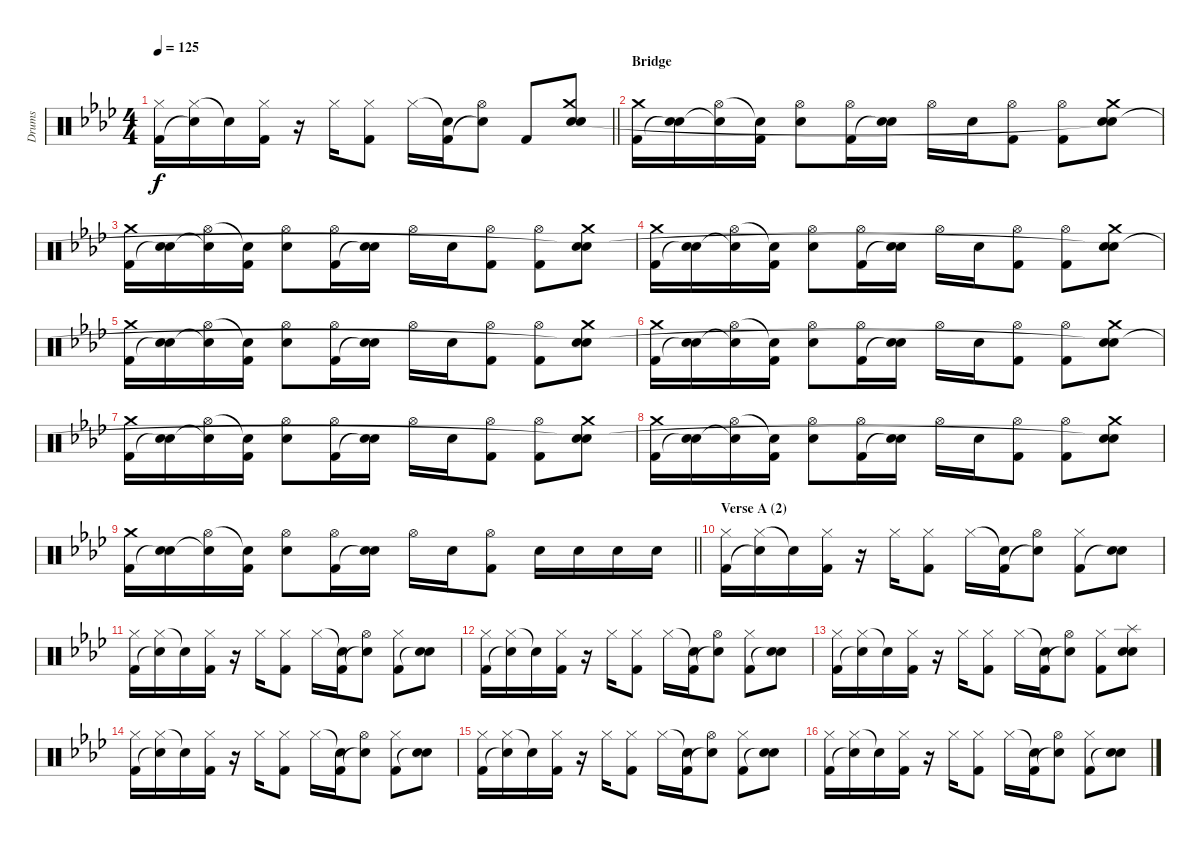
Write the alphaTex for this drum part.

\track ("Drums" "Drums") {instrument percussion}
\staff {score}
\articulation defaults
\ts (4 4)
\tempo 125
\clef neutral
\barLineRight lightlight
\ks ab
("Hi-Hat (closed)" "Kick (hit) 2").16{dy f} ("Hi-Hat (closed)" "Snare (hit)"{t}).16 "Snare (hit)"{t}.16 ("Hi-Hat (closed)" "Kick (hit) 2").16 r.16 "Hi-Hat (closed)".16 ("Hi-Hat (closed)" "Kick (hit) 2").8 "Hi-Hat (closed)".16 ("Snare (hit)"{t} "Kick (hit) 2").16 ("Hi-Hat (open)" "Snare (hit)"{t}).8 "Kick (hit) 2".8 ("Crash medium (hit)" "Electric Snare (hit)" "Snare (hit)").8 |
\section ("" "Bridge")
("Crash medium (hit)" "Kick (hit) 2").16 ("Electric Snare (hit)" "Snare (hit)"{t}).16 ("Hi-Hat (open)" "Snare (hit)"{t}).16 ("Snare (hit)"{t} "Kick (hit) 2").16 ("Hi-Hat (open)" "Electric Snare (hit)").8 ("Hi-Hat (open)" "Kick (hit) 2").16 ("Electric Snare (hit)" "Snare (hit)"{t}).16 "Hi-Hat (open)".16 "Electric Snare (hit)".16 ("Hi-Hat (open)" "Kick (hit) 2").8 ("Hi-Hat (open)" "Kick (hit) 2").8 ("Crash medium (hit)" "Electric Snare (hit)" "Snare (hit)"{t}).8 |
("Crash medium (hit)" "Kick (hit) 2").16 ("Electric Snare (hit)" "Snare (hit)"{t}).16 ("Hi-Hat (open)" "Snare (hit)"{t}).16 ("Snare (hit)"{t} "Kick (hit) 2").16 ("Hi-Hat (open)" "Electric Snare (hit)").8 ("Hi-Hat (open)" "Kick (hit) 2").16 ("Electric Snare (hit)" "Snare (hit)"{t}).16 "Hi-Hat (open)".16 "Electric Snare (hit)".16 ("Hi-Hat (open)" "Kick (hit) 2").8 ("Hi-Hat (open)" "Kick (hit) 2").8 ("Crash medium (hit)" "Electric Snare (hit)" "Snare (hit)"{t}).8 |
("Crash medium (hit)" "Kick (hit) 2").16 ("Electric Snare (hit)" "Snare (hit)"{t}).16 ("Hi-Hat (open)" "Snare (hit)"{t}).16 ("Snare (hit)"{t} "Kick (hit) 2").16 ("Hi-Hat (open)" "Electric Snare (hit)").8 ("Hi-Hat (open)" "Kick (hit) 2").16 ("Electric Snare (hit)" "Snare (hit)"{t}).16 "Hi-Hat (open)".16 "Electric Snare (hit)".16 ("Hi-Hat (open)" "Kick (hit) 2").8 ("Hi-Hat (open)" "Kick (hit) 2").8 ("Crash medium (hit)" "Electric Snare (hit)" "Snare (hit)"{t}).8 |
("Crash medium (hit)" "Kick (hit) 2").16 ("Electric Snare (hit)" "Snare (hit)"{t}).16 ("Hi-Hat (open)" "Snare (hit)"{t}).16 ("Snare (hit)"{t} "Kick (hit) 2").16 ("Hi-Hat (open)" "Electric Snare (hit)").8 ("Hi-Hat (open)" "Kick (hit) 2").16 ("Electric Snare (hit)" "Snare (hit)"{t}).16 "Hi-Hat (open)".16 "Electric Snare (hit)".16 ("Hi-Hat (open)" "Kick (hit) 2").8 ("Hi-Hat (open)" "Kick (hit) 2").8 ("Crash medium (hit)" "Electric Snare (hit)" "Snare (hit)"{t}).8 |
("Crash medium (hit)" "Kick (hit) 2").16 ("Electric Snare (hit)" "Snare (hit)"{t}).16 ("Hi-Hat (open)" "Snare (hit)"{t}).16 ("Snare (hit)"{t} "Kick (hit) 2").16 ("Hi-Hat (open)" "Electric Snare (hit)").8 ("Hi-Hat (open)" "Kick (hit) 2").16 ("Electric Snare (hit)" "Snare (hit)"{t}).16 "Hi-Hat (open)".16 "Electric Snare (hit)".16 ("Hi-Hat (open)" "Kick (hit) 2").8 ("Hi-Hat (open)" "Kick (hit) 2").8 ("Crash medium (hit)" "Electric Snare (hit)" "Snare (hit)"{t}).8 |
("Crash medium (hit)" "Kick (hit) 2").16 ("Electric Snare (hit)" "Snare (hit)"{t}).16 ("Hi-Hat (open)" "Snare (hit)"{t}).16 ("Snare (hit)"{t} "Kick (hit) 2").16 ("Hi-Hat (open)" "Electric Snare (hit)").8 ("Hi-Hat (open)" "Kick (hit) 2").16 ("Electric Snare (hit)" "Snare (hit)"{t}).16 "Hi-Hat (open)".16 "Electric Snare (hit)".16 ("Hi-Hat (open)" "Kick (hit) 2").8 ("Hi-Hat (open)" "Kick (hit) 2").8 ("Crash medium (hit)" "Electric Snare (hit)" "Snare (hit)"{t}).8 |
("Crash medium (hit)" "Kick (hit) 2").16 ("Electric Snare (hit)" "Snare (hit)"{t}).16 ("Hi-Hat (open)" "Snare (hit)"{t}).16 ("Snare (hit)"{t} "Kick (hit) 2").16 ("Hi-Hat (open)" "Electric Snare (hit)").8 ("Hi-Hat (open)" "Kick (hit) 2").16 ("Electric Snare (hit)" "Snare (hit)"{t}).16 "Hi-Hat (open)".16 "Electric Snare (hit)".16 ("Hi-Hat (open)" "Kick (hit) 2").8 ("Hi-Hat (open)" "Kick (hit) 2").8 ("Crash medium (hit)" "Electric Snare (hit)" "Snare (hit)"{t}).8 |
\barLineRight lightlight
("Crash medium (hit)" "Kick (hit) 2").16 ("Electric Snare (hit)" "Snare (hit)"{t}).16 ("Hi-Hat (open)" "Snare (hit)"{t}).16 ("Snare (hit)"{t} "Kick (hit) 2").16 ("Hi-Hat (open)" "Electric Snare (hit)").8 ("Hi-Hat (open)" "Kick (hit) 2").16 ("Electric Snare (hit)" "Snare (hit)"{t}).16 "Hi-Hat (open)".16 "Electric Snare (hit)".16 ("Hi-Hat (open)" "Kick (hit) 2").8 "Electric Snare (hit)".16 "Electric Snare (hit)".16 "Electric Snare (hit)".16 "Electric Snare (hit)".16 |
\section ("" "Verse A (2)")
("Hi-Hat (closed)" "Kick (hit) 2").16 ("Hi-Hat (closed)" "Snare (hit)"{t}).16 "Snare (hit)"{t}.16 ("Hi-Hat (closed)" "Kick (hit) 2").16 r.16 "Hi-Hat (closed)".16 ("Hi-Hat (closed)" "Kick (hit) 2").8 "Hi-Hat (closed)".16 ("Snare (hit)"{t} "Kick (hit) 2").16 ("Hi-Hat (open)" "Snare (hit)"{t}).8 ("Hi-Hat (closed)" "Kick (hit) 2").8 ("Electric Snare (hit)" "Snare (hit)"{t}).8 |
("Hi-Hat (closed)" "Kick (hit) 2").16 ("Hi-Hat (closed)" "Snare (hit)"{t}).16 "Snare (hit)"{t}.16 ("Hi-Hat (closed)" "Kick (hit) 2").16 r.16 "Hi-Hat (closed)".16 ("Hi-Hat (closed)" "Kick (hit) 2").8 "Hi-Hat (closed)".16 ("Snare (hit)"{t} "Kick (hit) 2").16 ("Hi-Hat (open)" "Snare (hit)"{t}).8 ("Hi-Hat (closed)" "Kick (hit) 2").8 ("Electric Snare (hit)" "Snare (hit)"{t}).8 |
("Hi-Hat (closed)" "Kick (hit) 2").16 ("Hi-Hat (closed)" "Snare (hit)"{t}).16 "Snare (hit)"{t}.16 ("Hi-Hat (closed)" "Kick (hit) 2").16 r.16 "Hi-Hat (closed)".16 ("Hi-Hat (closed)" "Kick (hit) 2").8 "Hi-Hat (closed)".16 ("Snare (hit)"{t} "Kick (hit) 2").16 ("Hi-Hat (open)" "Snare (hit)"{t}).8 ("Hi-Hat (closed)" "Kick (hit) 2").8 ("Electric Snare (hit)" "Snare (hit)"{t}).8 |
("Hi-Hat (closed)" "Kick (hit) 2").16 ("Hi-Hat (closed)" "Snare (hit)"{t}).16 "Snare (hit)"{t}.16 ("Hi-Hat (closed)" "Kick (hit) 2").16 r.16 "Hi-Hat (closed)".16 ("Hi-Hat (closed)" "Kick (hit) 2").8 "Hi-Hat (closed)".16 ("Snare (hit)"{t} "Kick (hit) 2").16 ("Hi-Hat (open)" "Snare (hit)"{t}).8 ("Hi-Hat (closed)" "Kick (hit) 2").8 ("Splash (hit)" "Electric Snare (hit)" "Snare (hit)").8 |
("Hi-Hat (closed)" "Kick (hit) 2").16 ("Hi-Hat (closed)" "Snare (hit)"{t}).16 "Snare (hit)"{t}.16 ("Hi-Hat (closed)" "Kick (hit) 2").16 r.16 "Hi-Hat (closed)".16 ("Hi-Hat (closed)" "Kick (hit) 2").8 "Hi-Hat (closed)".16 ("Snare (hit)"{t} "Kick (hit) 2").16 ("Hi-Hat (open)" "Snare (hit)"{t}).8 ("Hi-Hat (closed)" "Kick (hit) 2").8 ("Electric Snare (hit)" "Snare (hit)"{t}).8 |
("Hi-Hat (closed)" "Kick (hit) 2").16 ("Hi-Hat (closed)" "Snare (hit)"{t}).16 "Snare (hit)"{t}.16 ("Hi-Hat (closed)" "Kick (hit) 2").16 r.16 "Hi-Hat (closed)".16 ("Hi-Hat (closed)" "Kick (hit) 2").8 "Hi-Hat (closed)".16 ("Snare (hit)"{t} "Kick (hit) 2").16 ("Hi-Hat (open)" "Snare (hit)"{t}).8 ("Hi-Hat (closed)" "Kick (hit) 2").8 ("Electric Snare (hit)" "Snare (hit)"{t}).8 |
("Hi-Hat (closed)" "Kick (hit) 2").16 ("Hi-Hat (closed)" "Snare (hit)"{t}).16 "Snare (hit)"{t}.16 ("Hi-Hat (closed)" "Kick (hit) 2").16 r.16 "Hi-Hat (closed)".16 ("Hi-Hat (closed)" "Kick (hit) 2").8 "Hi-Hat (closed)".16 ("Snare (hit)"{t} "Kick (hit) 2").16 ("Hi-Hat (open)" "Snare (hit)"{t}).8 ("Hi-Hat (closed)" "Kick (hit) 2").8 ("Electric Snare (hit)" "Snare (hit)"{t}).8
